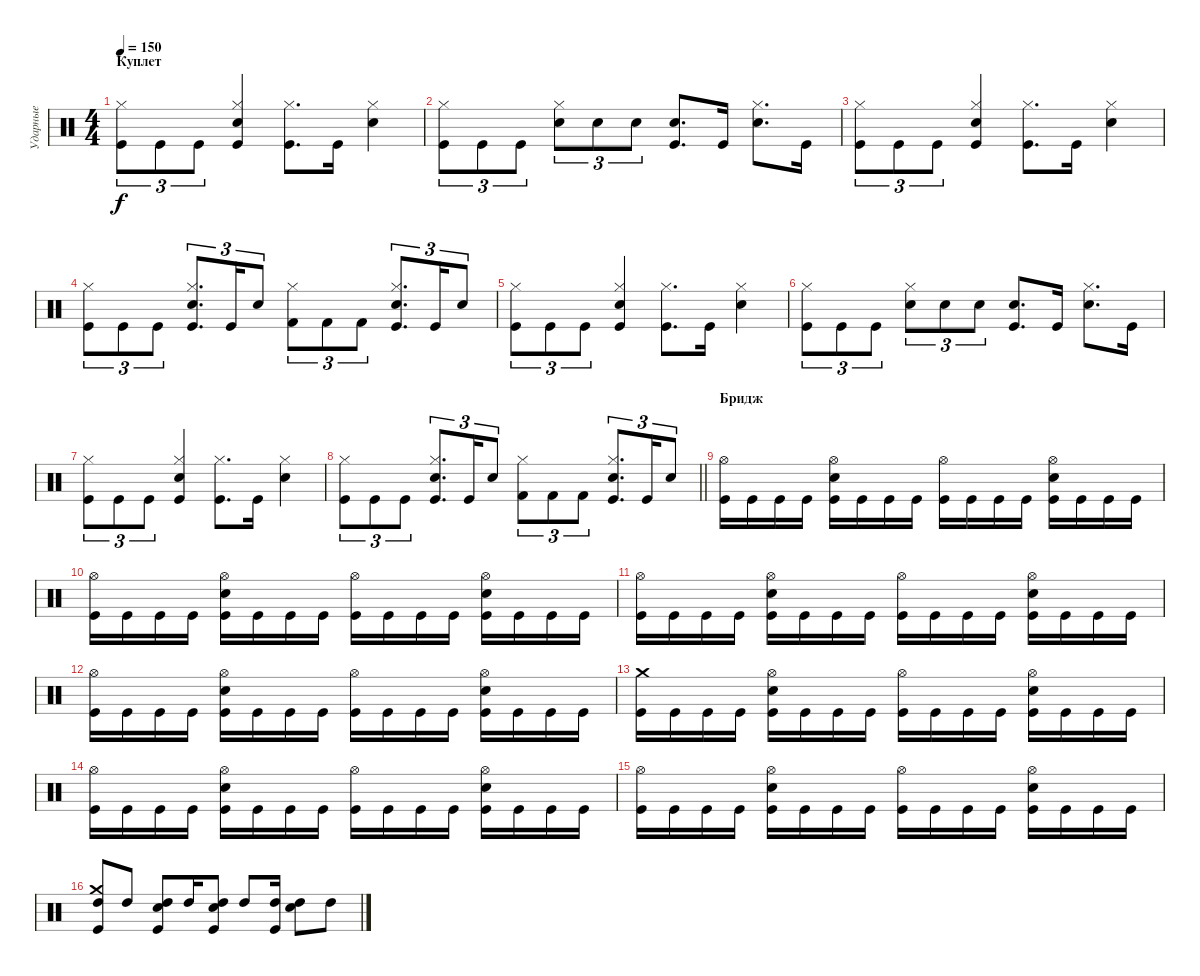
\track ("Ударные" "Ударные") {instrument percussion}
\staff {score}
\articulation defaults
\ts (4 4)
\section ("" "Куплет")
\tempo 150
\clef neutral
\ks c
("Kick (hit)" "Hi-Hat (closed)").8{tu (3 2) dy f} "Kick (hit)".8{tu (3 2)} "Kick (hit)".8{tu (3 2)} ("Kick (hit)" "Electric Snare (hit)" "Hi-Hat (closed)").4 ("Kick (hit)" "Hi-Hat (closed)").8{d} "Kick (hit)".16 ("Electric Snare (hit)" "Hi-Hat (closed)").4 |
("Kick (hit)" "Hi-Hat (closed)").8{tu (3 2)} "Kick (hit)".8{tu (3 2)} "Kick (hit)".8{tu (3 2)} ("Electric Snare (hit)" "Hi-Hat (closed)").8{tu (3 2)} "Electric Snare (hit)".8{tu (3 2)} "Electric Snare (hit)".8{tu (3 2)} ("Electric Snare (hit)" "Kick (hit)").8{d} "Kick (hit)".16 ("Electric Snare (hit)" "Hi-Hat (closed)").8{d} "Kick (hit)".16 |
("Kick (hit)" "Hi-Hat (closed)").8{tu (3 2)} "Kick (hit)".8{tu (3 2)} "Kick (hit)".8{tu (3 2)} ("Kick (hit)" "Electric Snare (hit)" "Hi-Hat (closed)").4 ("Kick (hit)" "Hi-Hat (closed)").8{d} "Kick (hit)".16 ("Electric Snare (hit)" "Hi-Hat (closed)").4 |
("Kick (hit)" "Hi-Hat (closed)").8{tu (3 2)} "Kick (hit)".8{tu (3 2)} "Kick (hit)".8{tu (3 2)} ("Electric Snare (hit)" "Hi-Hat (closed)" "Kick (hit)").8{d tu (3 2)} "Kick (hit)".16{tu (3 2)} "Electric Snare (hit)".8{tu (3 2)} ("Kick (hit) 2" "Hi-Hat (closed)").8{tu (3 2)} "Kick (hit) 2".8{tu (3 2)} "Kick (hit) 2".8{tu (3 2)} ("Electric Snare (hit)" "Hi-Hat (closed)" "Kick (hit)").8{d tu (3 2)} "Kick (hit)".16{tu (3 2)} "Electric Snare (hit)".8{tu (3 2)} |
("Kick (hit)" "Hi-Hat (closed)").8{tu (3 2)} "Kick (hit)".8{tu (3 2)} "Kick (hit)".8{tu (3 2)} ("Kick (hit)" "Electric Snare (hit)" "Hi-Hat (closed)").4 ("Kick (hit)" "Hi-Hat (closed)").8{d} "Kick (hit)".16 ("Electric Snare (hit)" "Hi-Hat (closed)").4 |
("Kick (hit)" "Hi-Hat (closed)").8{tu (3 2)} "Kick (hit)".8{tu (3 2)} "Kick (hit)".8{tu (3 2)} ("Electric Snare (hit)" "Hi-Hat (closed)").8{tu (3 2)} "Electric Snare (hit)".8{tu (3 2)} "Electric Snare (hit)".8{tu (3 2)} ("Electric Snare (hit)" "Kick (hit)").8{d} "Kick (hit)".16 ("Electric Snare (hit)" "Hi-Hat (closed)").8{d} "Kick (hit)".16 |
("Kick (hit)" "Hi-Hat (closed)").8{tu (3 2)} "Kick (hit)".8{tu (3 2)} "Kick (hit)".8{tu (3 2)} ("Kick (hit)" "Electric Snare (hit)" "Hi-Hat (closed)").4 ("Kick (hit)" "Hi-Hat (closed)").8{d} "Kick (hit)".16 ("Electric Snare (hit)" "Hi-Hat (closed)").4 |
\barLineRight lightlight
("Kick (hit)" "Hi-Hat (closed)").8{tu (3 2)} "Kick (hit)".8{tu (3 2)} "Kick (hit)".8{tu (3 2)} ("Electric Snare (hit)" "Hi-Hat (closed)" "Kick (hit)").8{d tu (3 2)} "Kick (hit)".16{tu (3 2)} "Electric Snare (hit)".8{tu (3 2)} ("Kick (hit) 2" "Hi-Hat (closed)").8{tu (3 2)} "Kick (hit) 2".8{tu (3 2)} "Kick (hit) 2".8{tu (3 2)} ("Electric Snare (hit)" "Hi-Hat (closed)" "Kick (hit)").8{d tu (3 2)} "Kick (hit)".16{tu (3 2)} "Electric Snare (hit)".8{tu (3 2)} |
\section ("" "Бридж")
("Kick (hit)" "Hi-Hat (open)").16 "Kick (hit)".16 "Kick (hit)".16 "Kick (hit)".16 ("Kick (hit)" "Electric Snare (hit)" "Hi-Hat (open)").16 "Kick (hit)".16 "Kick (hit)".16 "Kick (hit)".16 ("Kick (hit)" "Hi-Hat (open)").16 "Kick (hit)".16 "Kick (hit)".16 "Kick (hit)".16 ("Kick (hit)" "Electric Snare (hit)" "Hi-Hat (open)").16 "Kick (hit)".16 "Kick (hit)".16 "Kick (hit)".16 |
("Kick (hit)" "Hi-Hat (open)").16 "Kick (hit)".16 "Kick (hit)".16 "Kick (hit)".16 ("Kick (hit)" "Electric Snare (hit)" "Hi-Hat (open)").16 "Kick (hit)".16 "Kick (hit)".16 "Kick (hit)".16 ("Kick (hit)" "Hi-Hat (open)").16 "Kick (hit)".16 "Kick (hit)".16 "Kick (hit)".16 ("Kick (hit)" "Electric Snare (hit)" "Hi-Hat (open)").16 "Kick (hit)".16 "Kick (hit)".16 "Kick (hit)".16 |
("Kick (hit)" "Hi-Hat (open)").16 "Kick (hit)".16 "Kick (hit)".16 "Kick (hit)".16 ("Kick (hit)" "Electric Snare (hit)" "Hi-Hat (open)").16 "Kick (hit)".16 "Kick (hit)".16 "Kick (hit)".16 ("Kick (hit)" "Hi-Hat (open)").16 "Kick (hit)".16 "Kick (hit)".16 "Kick (hit)".16 ("Kick (hit)" "Electric Snare (hit)" "Hi-Hat (open)").16 "Kick (hit)".16 "Kick (hit)".16 "Kick (hit)".16 |
("Kick (hit)" "Hi-Hat (open)").16 "Kick (hit)".16 "Kick (hit)".16 "Kick (hit)".16 ("Kick (hit)" "Electric Snare (hit)" "Hi-Hat (open)").16 "Kick (hit)".16 "Kick (hit)".16 "Kick (hit)".16 ("Kick (hit)" "Hi-Hat (open)").16 "Kick (hit)".16 "Kick (hit)".16 "Kick (hit)".16 ("Kick (hit)" "Electric Snare (hit)" "Hi-Hat (open)").16 "Kick (hit)".16 "Kick (hit)".16 "Kick (hit)".16 |
("Kick (hit)" "Crash medium (hit)").16 "Kick (hit)".16 "Kick (hit)".16 "Kick (hit)".16 ("Kick (hit)" "Electric Snare (hit)" "Hi-Hat (open)").16 "Kick (hit)".16 "Kick (hit)".16 "Kick (hit)".16 ("Kick (hit)" "Hi-Hat (open)").16 "Kick (hit)".16 "Kick (hit)".16 "Kick (hit)".16 ("Kick (hit)" "Electric Snare (hit)" "Hi-Hat (open)").16 "Kick (hit)".16 "Kick (hit)".16 "Kick (hit)".16 |
("Kick (hit)" "Hi-Hat (open)").16 "Kick (hit)".16 "Kick (hit)".16 "Kick (hit)".16 ("Kick (hit)" "Electric Snare (hit)" "Hi-Hat (open)").16 "Kick (hit)".16 "Kick (hit)".16 "Kick (hit)".16 ("Kick (hit)" "Hi-Hat (open)").16 "Kick (hit)".16 "Kick (hit)".16 "Kick (hit)".16 ("Kick (hit)" "Electric Snare (hit)" "Hi-Hat (open)").16 "Kick (hit)".16 "Kick (hit)".16 "Kick (hit)".16 |
("Kick (hit)" "Hi-Hat (open)").16 "Kick (hit)".16 "Kick (hit)".16 "Kick (hit)".16 ("Kick (hit)" "Electric Snare (hit)" "Hi-Hat (open)").16 "Kick (hit)".16 "Kick (hit)".16 "Kick (hit)".16 ("Kick (hit)" "Hi-Hat (open)").16 "Kick (hit)".16 "Kick (hit)".16 "Kick (hit)".16 ("Kick (hit)" "Electric Snare (hit)" "Hi-Hat (open)").16 "Kick (hit)".16 "Kick (hit)".16 "Kick (hit)".16 |
("High Tom (hit)" "Crash medium (hit)" "Kick (hit)").8 "High Tom (hit)".8 ("High Tom (hit)" "Electric Snare (hit)" "Kick (hit)").8 "High Tom (hit)".16 ("High Tom (hit)" "Electric Snare (hit)" "Kick (hit)").8 "High Tom (hit)".8 ("High Tom (hit)" "Kick (hit)").16 ("High Tom (hit)" "Electric Snare (hit)").8 "High Tom (hit)".8
